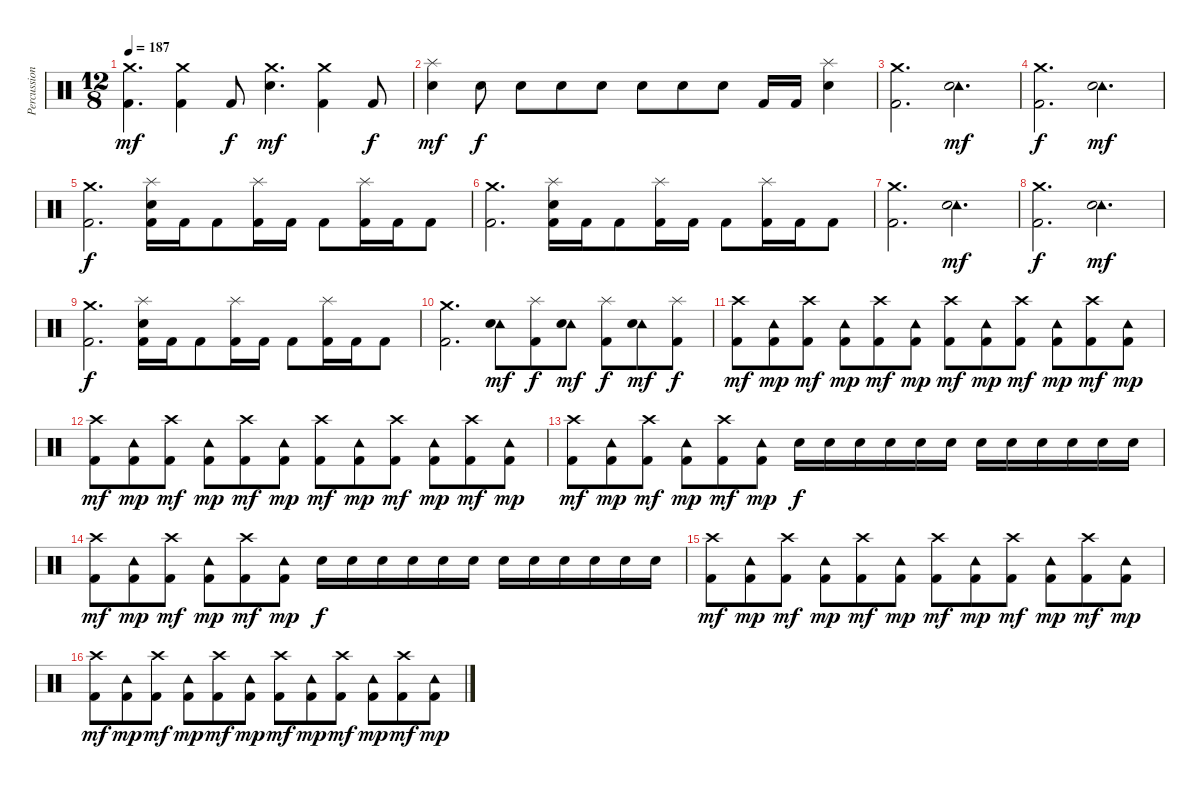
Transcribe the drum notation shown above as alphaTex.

\track ("Percussion" "Percussion") {instrument percussion}
\staff {score}
\articulation defaults
\ts (12 8)
\tempo 187
\clef neutral
\ks c
("Crash medium (hit)" "Kick (hit) 2").4{d dy mf} ("Crash medium (hit)" "Kick (hit) 2").4 "Kick (hit) 2".8{dy f} ("Crash medium (hit)" "Snare (hit) 2").4{d dy mf} ("Crash medium (hit)" "Kick (hit) 2").4 "Kick (hit) 2".8{dy f} |
("Splash (hit)" "Snare (hit) 2").4{dy mf} "Snare (hit) 2".8{dy f} "Snare (hit) 2".8 "Snare (hit) 2".8 "Snare (hit) 2".8 "Snare (hit) 2".8 "Snare (hit) 2".8 "Snare (hit) 2".8 "Kick (hit) 2".16 "Kick (hit) 2".16 ("Splash (hit)" "Snare (hit) 2").4 |
("Crash medium (hit)" "Kick (hit) 2").2{d} ("Tambourine (hit)" "Snare (hit) 2").2{d dy mf} |
("Crash medium (hit)" "Kick (hit) 2").2{d dy f} ("Tambourine (hit)" "Snare (hit) 2").2{d dy mf} |
("Crash medium (hit)" "Kick (hit) 2").2{d dy f} ("Splash (hit)" "Snare (hit) 2" "Kick (hit) 2").16 "Kick (hit) 2".16 "Kick (hit) 2".8 ("Splash (hit)" "Kick (hit) 2").16 "Kick (hit) 2".16 "Kick (hit) 2".8 ("Splash (hit)" "Kick (hit) 2").16 "Kick (hit) 2".16 "Kick (hit) 2".8 |
("Crash medium (hit)" "Kick (hit) 2").2{d} ("Splash (hit)" "Snare (hit) 2" "Kick (hit) 2").16 "Kick (hit) 2".16 "Kick (hit) 2".8 ("Splash (hit)" "Kick (hit) 2").16 "Kick (hit) 2".16 "Kick (hit) 2".8 ("Splash (hit)" "Kick (hit) 2").16 "Kick (hit) 2".16 "Kick (hit) 2".8 |
("Crash medium (hit)" "Kick (hit) 2").2{d} ("Tambourine (hit)" "Snare (hit) 2").2{d dy mf} |
("Crash medium (hit)" "Kick (hit) 2").2{d dy f} ("Tambourine (hit)" "Snare (hit) 2").2{d dy mf} |
("Crash medium (hit)" "Kick (hit) 2").2{d dy f} ("Splash (hit)" "Snare (hit) 2" "Kick (hit) 2").16 "Kick (hit) 2".16 "Kick (hit) 2".8 ("Splash (hit)" "Kick (hit) 2").16 "Kick (hit) 2".16 "Kick (hit) 2".8 ("Splash (hit)" "Kick (hit) 2").16 "Kick (hit) 2".16 "Kick (hit) 2".8 |
("Crash medium (hit)" "Kick (hit) 2").2{d} ("Tambourine (hit)" "Snare (hit) 2").8{dy mf} ("Splash (hit)" "Kick (hit) 2").8{dy f} ("Tambourine (hit)" "Snare (hit) 2").8{dy mf} ("Splash (hit)" "Kick (hit) 2").8{dy f} ("Tambourine (hit)" "Snare (hit) 2").8{dy mf} ("Splash (hit)" "Kick (hit) 2").8{dy f} |
("Crash high (hit)" "Kick (hit) 2").8{dy mf} ("Tambourine (hit)" "Kick (hit) 2").8{dy mp} ("Crash high (hit)" "Kick (hit) 2").8{dy mf} ("Tambourine (hit)" "Kick (hit) 2").8{dy mp} ("Crash high (hit)" "Kick (hit) 2").8{dy mf} ("Tambourine (hit)" "Kick (hit) 2").8{dy mp} ("Crash high (hit)" "Kick (hit) 2").8{dy mf} ("Tambourine (hit)" "Kick (hit) 2").8{dy mp} ("Crash high (hit)" "Kick (hit) 2").8{dy mf} ("Tambourine (hit)" "Kick (hit) 2").8{dy mp} ("Crash high (hit)" "Kick (hit) 2").8{dy mf} ("Tambourine (hit)" "Kick (hit) 2").8{dy mp} |
("Crash high (hit)" "Kick (hit) 2").8{dy mf} ("Tambourine (hit)" "Kick (hit) 2").8{dy mp} ("Crash high (hit)" "Kick (hit) 2").8{dy mf} ("Tambourine (hit)" "Kick (hit) 2").8{dy mp} ("Crash high (hit)" "Kick (hit) 2").8{dy mf} ("Tambourine (hit)" "Kick (hit) 2").8{dy mp} ("Crash high (hit)" "Kick (hit) 2").8{dy mf} ("Tambourine (hit)" "Kick (hit) 2").8{dy mp} ("Crash high (hit)" "Kick (hit) 2").8{dy mf} ("Tambourine (hit)" "Kick (hit) 2").8{dy mp} ("Crash high (hit)" "Kick (hit) 2").8{dy mf} ("Tambourine (hit)" "Kick (hit) 2").8{dy mp} |
("Crash high (hit)" "Kick (hit) 2").8{dy mf} ("Tambourine (hit)" "Kick (hit) 2").8{dy mp} ("Crash high (hit)" "Kick (hit) 2").8{dy mf} ("Tambourine (hit)" "Kick (hit) 2").8{dy mp} ("Crash high (hit)" "Kick (hit) 2").8{dy mf} ("Tambourine (hit)" "Kick (hit) 2").8{dy mp} "Snare (hit) 2".16{dy f} "Snare (hit) 2".16 "Snare (hit) 2".16 "Snare (hit) 2".16 "Snare (hit) 2".16 "Snare (hit) 2".16 "Snare (hit) 2".16 "Snare (hit) 2".16 "Snare (hit) 2".16 "Snare (hit) 2".16 "Snare (hit) 2".16 "Snare (hit) 2".16 |
("Crash high (hit)" "Kick (hit) 2").8{dy mf} ("Tambourine (hit)" "Kick (hit) 2").8{dy mp} ("Crash high (hit)" "Kick (hit) 2").8{dy mf} ("Tambourine (hit)" "Kick (hit) 2").8{dy mp} ("Crash high (hit)" "Kick (hit) 2").8{dy mf} ("Tambourine (hit)" "Kick (hit) 2").8{dy mp} "Snare (hit) 2".16{dy f} "Snare (hit) 2".16 "Snare (hit) 2".16 "Snare (hit) 2".16 "Snare (hit) 2".16 "Snare (hit) 2".16 "Snare (hit) 2".16 "Snare (hit) 2".16 "Snare (hit) 2".16 "Snare (hit) 2".16 "Snare (hit) 2".16 "Snare (hit) 2".16 |
("Crash high (hit)" "Kick (hit) 2").8{dy mf} ("Tambourine (hit)" "Kick (hit) 2").8{dy mp} ("Crash high (hit)" "Kick (hit) 2").8{dy mf} ("Tambourine (hit)" "Kick (hit) 2").8{dy mp} ("Crash high (hit)" "Kick (hit) 2").8{dy mf} ("Tambourine (hit)" "Kick (hit) 2").8{dy mp} ("Crash high (hit)" "Kick (hit) 2").8{dy mf} ("Tambourine (hit)" "Kick (hit) 2").8{dy mp} ("Crash high (hit)" "Kick (hit) 2").8{dy mf} ("Tambourine (hit)" "Kick (hit) 2").8{dy mp} ("Crash high (hit)" "Kick (hit) 2").8{dy mf} ("Tambourine (hit)" "Kick (hit) 2").8{dy mp} |
("Crash high (hit)" "Kick (hit) 2").8{dy mf} ("Tambourine (hit)" "Kick (hit) 2").8{dy mp} ("Crash high (hit)" "Kick (hit) 2").8{dy mf} ("Tambourine (hit)" "Kick (hit) 2").8{dy mp} ("Crash high (hit)" "Kick (hit) 2").8{dy mf} ("Tambourine (hit)" "Kick (hit) 2").8{dy mp} ("Crash high (hit)" "Kick (hit) 2").8{dy mf} ("Tambourine (hit)" "Kick (hit) 2").8{dy mp} ("Crash high (hit)" "Kick (hit) 2").8{dy mf} ("Tambourine (hit)" "Kick (hit) 2").8{dy mp} ("Crash high (hit)" "Kick (hit) 2").8{dy mf} ("Tambourine (hit)" "Kick (hit) 2").8{dy mp}
